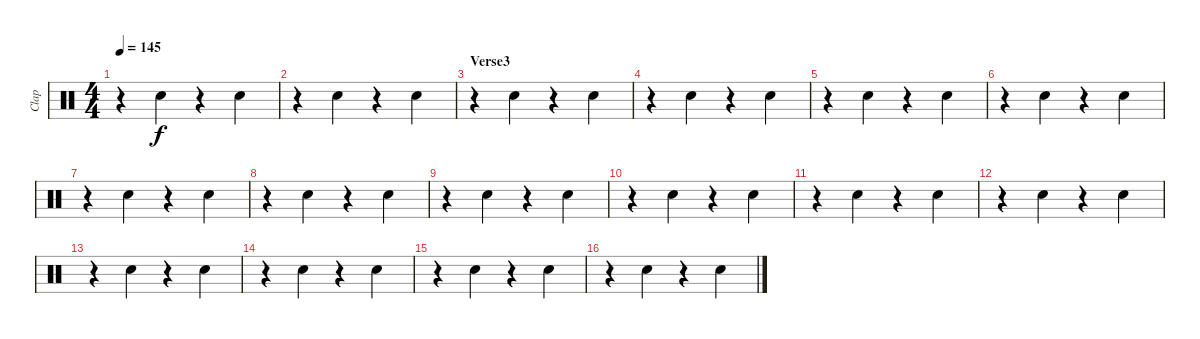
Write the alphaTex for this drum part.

\track ("Clap" "Clap") {instrument percussion}
\staff {score}
\articulation defaults
\ts (4 4)
\tempo 145
\clef neutral
\ks c
r.4{dy f} "Hand Clap (hit)".4 r.4 "Hand Clap (hit)".4 |
r.4 "Hand Clap (hit)".4 r.4 "Hand Clap (hit)".4 |
\section ("" "Verse3")
r.4 "Hand Clap (hit)".4 r.4 "Hand Clap (hit)".4 |
r.4 "Hand Clap (hit)".4 r.4 "Hand Clap (hit)".4 |
r.4 "Hand Clap (hit)".4 r.4 "Hand Clap (hit)".4 |
r.4 "Hand Clap (hit)".4 r.4 "Hand Clap (hit)".4 |
r.4 "Hand Clap (hit)".4 r.4 "Hand Clap (hit)".4 |
r.4 "Hand Clap (hit)".4 r.4 "Hand Clap (hit)".4 |
r.4 "Hand Clap (hit)".4 r.4 "Hand Clap (hit)".4 |
r.4 "Hand Clap (hit)".4 r.4 "Hand Clap (hit)".4 |
r.4 "Hand Clap (hit)".4 r.4 "Hand Clap (hit)".4 |
r.4 "Hand Clap (hit)".4 r.4 "Hand Clap (hit)".4 |
r.4 "Hand Clap (hit)".4 r.4 "Hand Clap (hit)".4 |
r.4 "Hand Clap (hit)".4 r.4 "Hand Clap (hit)".4 |
r.4 "Hand Clap (hit)".4 r.4 "Hand Clap (hit)".4 |
r.4 "Hand Clap (hit)".4 r.4 "Hand Clap (hit)".4
